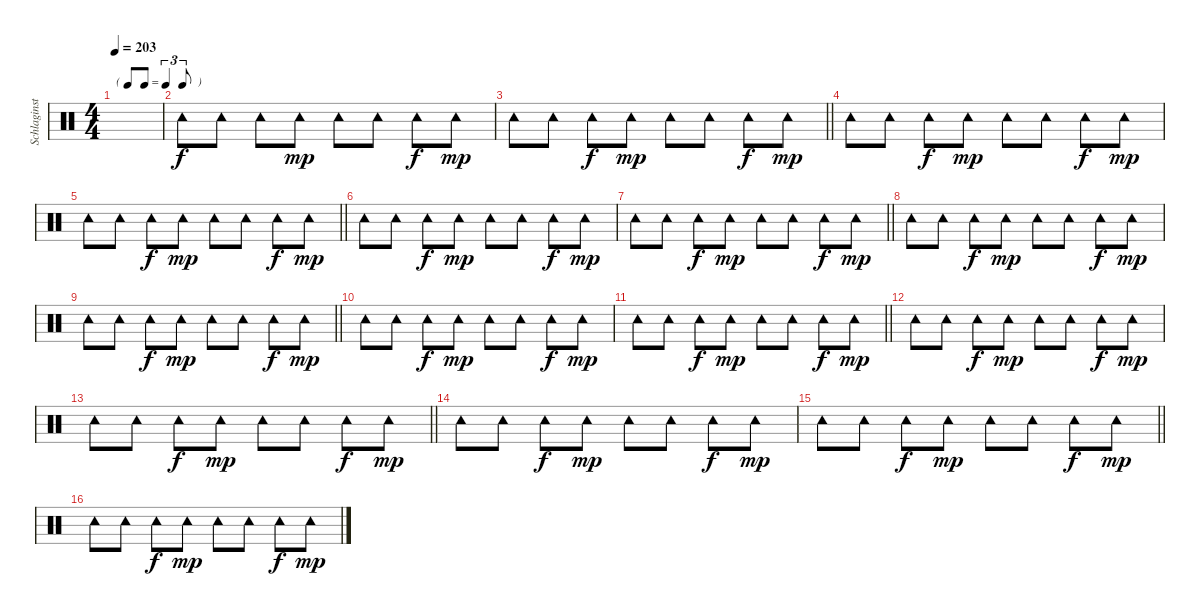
\track ("Schlaginstrumente - Auswahl" "Schlaginst") {instrument percussion}
\staff {score}
\articulation defaults
\ts (4 4)
\tf triplet8th
\tempo 203
\clef neutral
\ks c
|
"Tambourine (hit)".8 "Tambourine (hit)".8 "Tambourine (hit)".8{dy f} "Tambourine (hit)".8{dy mp} "Tambourine (hit)".8 "Tambourine (hit)".8 "Tambourine (hit)".8{dy f} "Tambourine (hit)".8{dy mp} |
\barLineRight lightlight "Tambourine (hit)".8 "Tambourine (hit)".8 "Tambourine (hit)".8{dy f} "Tambourine (hit)".8{dy mp} "Tambourine (hit)".8 "Tambourine (hit)".8 "Tambourine (hit)".8{dy f} "Tambourine (hit)".8{dy mp}
|
"Tambourine (hit)".8 "Tambourine (hit)".8 "Tambourine (hit)".8{dy f} "Tambourine (hit)".8{dy mp} "Tambourine (hit)".8 "Tambourine (hit)".8 "Tambourine (hit)".8{dy f} "Tambourine (hit)".8{dy mp} |
\barLineRight lightlight "Tambourine (hit)".8 "Tambourine (hit)".8 "Tambourine (hit)".8{dy f} "Tambourine (hit)".8{dy mp} "Tambourine (hit)".8 "Tambourine (hit)".8 "Tambourine (hit)".8{dy f} "Tambourine (hit)".8{dy mp}
|
"Tambourine (hit)".8 "Tambourine (hit)".8 "Tambourine (hit)".8{dy f} "Tambourine (hit)".8{dy mp} "Tambourine (hit)".8 "Tambourine (hit)".8 "Tambourine (hit)".8{dy f} "Tambourine (hit)".8{dy mp} |
\barLineRight lightlight "Tambourine (hit)".8 "Tambourine (hit)".8 "Tambourine (hit)".8{dy f} "Tambourine (hit)".8{dy mp} "Tambourine (hit)".8 "Tambourine (hit)".8 "Tambourine (hit)".8{dy f} "Tambourine (hit)".8{dy mp}
|
"Tambourine (hit)".8 "Tambourine (hit)".8 "Tambourine (hit)".8{dy f} "Tambourine (hit)".8{dy mp} "Tambourine (hit)".8 "Tambourine (hit)".8 "Tambourine (hit)".8{dy f} "Tambourine (hit)".8{dy mp} |
\barLineRight lightlight "Tambourine (hit)".8 "Tambourine (hit)".8 "Tambourine (hit)".8{dy f} "Tambourine (hit)".8{dy mp} "Tambourine (hit)".8 "Tambourine (hit)".8 "Tambourine (hit)".8{dy f} "Tambourine (hit)".8{dy mp}
|
"Tambourine (hit)".8 "Tambourine (hit)".8 "Tambourine (hit)".8{dy f} "Tambourine (hit)".8{dy mp} "Tambourine (hit)".8 "Tambourine (hit)".8 "Tambourine (hit)".8{dy f} "Tambourine (hit)".8{dy mp} |
\barLineRight lightlight "Tambourine (hit)".8 "Tambourine (hit)".8 "Tambourine (hit)".8{dy f} "Tambourine (hit)".8{dy mp} "Tambourine (hit)".8 "Tambourine (hit)".8 "Tambourine (hit)".8{dy f} "Tambourine (hit)".8{dy mp}
|
"Tambourine (hit)".8 "Tambourine (hit)".8 "Tambourine (hit)".8{dy f} "Tambourine (hit)".8{dy mp} "Tambourine (hit)".8 "Tambourine (hit)".8 "Tambourine (hit)".8{dy f} "Tambourine (hit)".8{dy mp} |
\barLineRight lightlight "Tambourine (hit)".8 "Tambourine (hit)".8 "Tambourine (hit)".8{dy f} "Tambourine (hit)".8{dy mp} "Tambourine (hit)".8 "Tambourine (hit)".8 "Tambourine (hit)".8{dy f} "Tambourine (hit)".8{dy mp}
|
"Tambourine (hit)".8 "Tambourine (hit)".8 "Tambourine (hit)".8{dy f} "Tambourine (hit)".8{dy mp} "Tambourine (hit)".8 "Tambourine (hit)".8 "Tambourine (hit)".8{dy f} "Tambourine (hit)".8{dy mp} |
\barLineRight lightlight "Tambourine (hit)".8 "Tambourine (hit)".8 "Tambourine (hit)".8{dy f} "Tambourine (hit)".8{dy mp} "Tambourine (hit)".8 "Tambourine (hit)".8 "Tambourine (hit)".8{dy f} "Tambourine (hit)".8{dy mp}
|
"Tambourine (hit)".8 "Tambourine (hit)".8 "Tambourine (hit)".8{dy f} "Tambourine (hit)".8{dy mp} "Tambourine (hit)".8 "Tambourine (hit)".8 "Tambourine (hit)".8{dy f} "Tambourine (hit)".8{dy mp}
